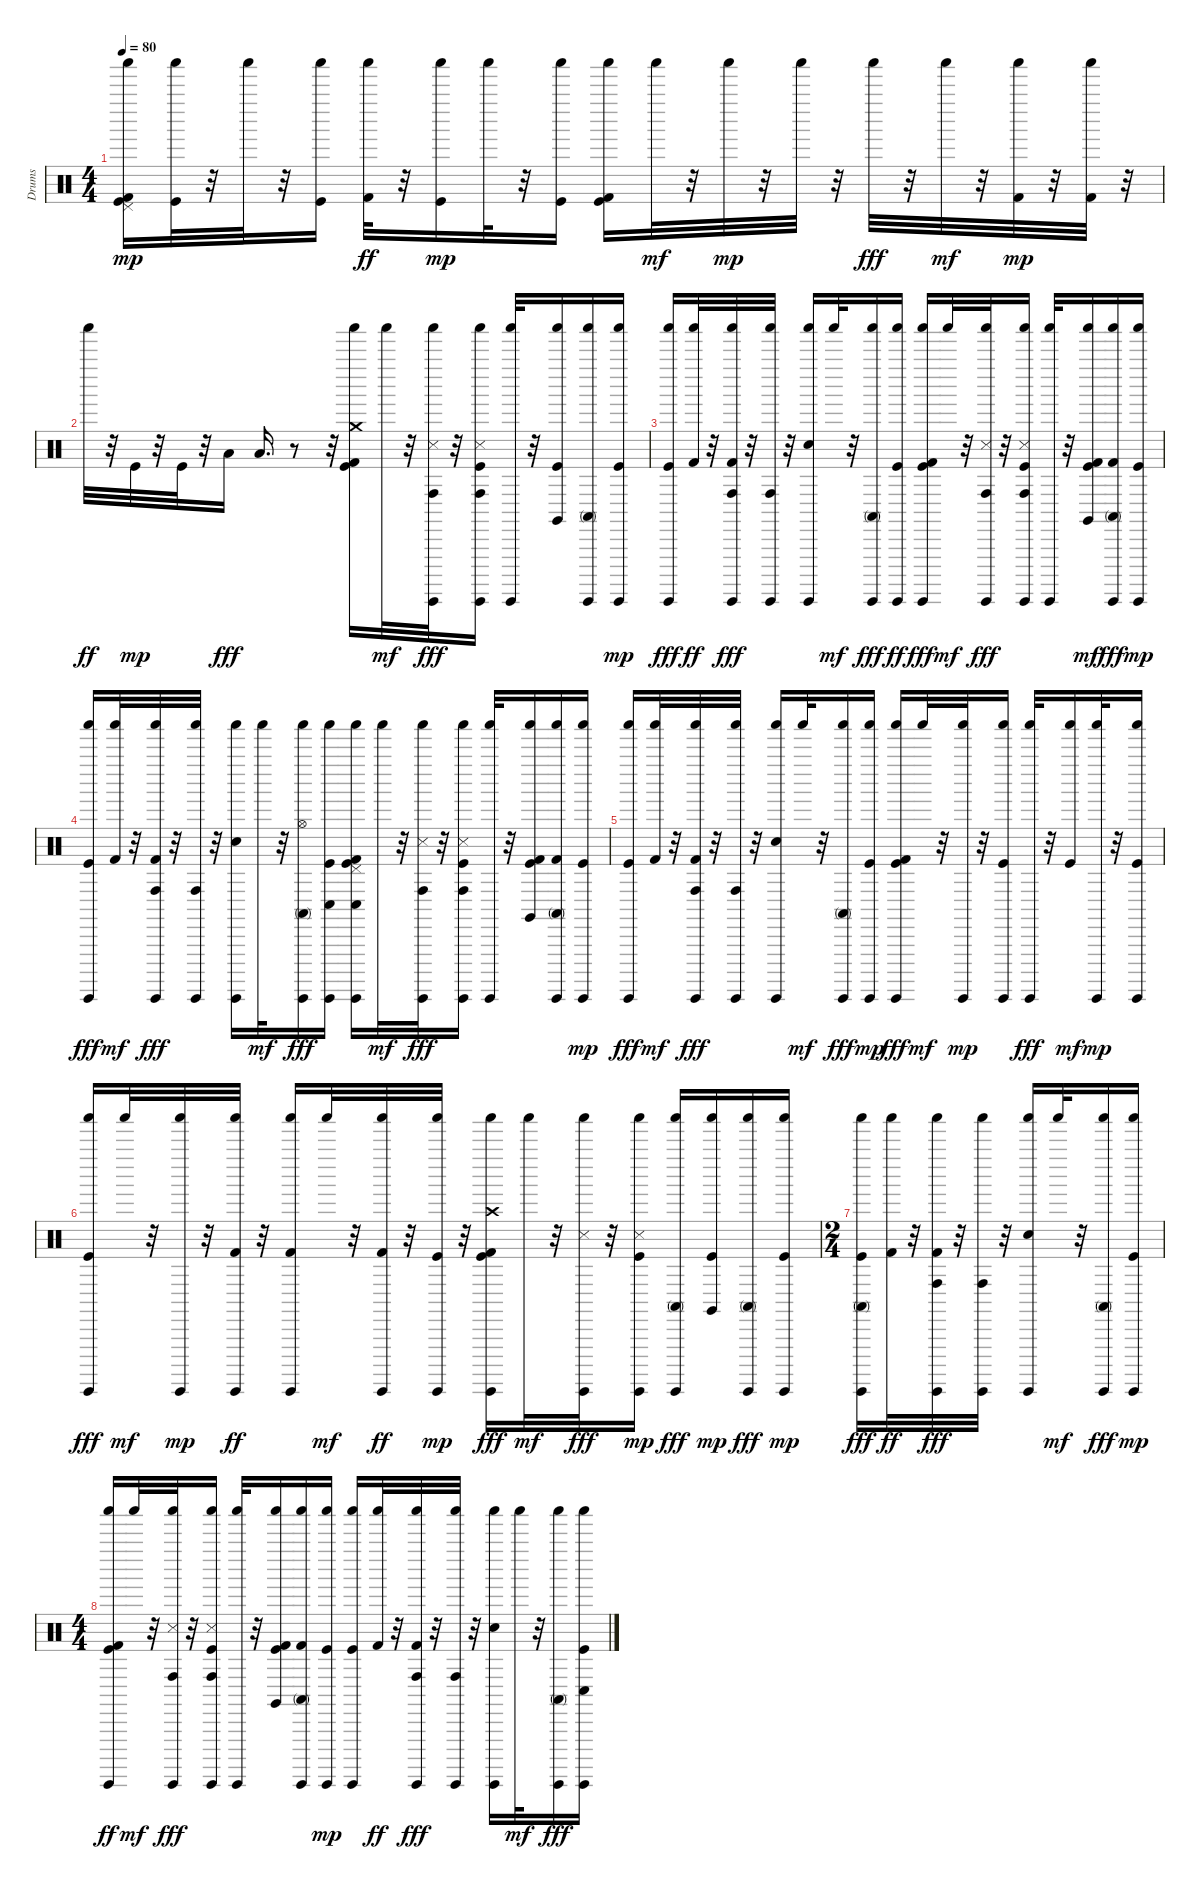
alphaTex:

\track ("Drums" "Drums") {instrument percussion}
\staff {score}
\articulation defaults
\ts (4 4)
\tempo 80
\clef neutral
\ks c
("Shaker (hit)" "Kick (hit) 2" "Pedal Hi-Hat (hit)" "Kick (hit)").16{dy mp} ("Shaker (hit)" "Kick (hit)").32 r.32 "Shaker (hit)".32 r.32 ("Shaker (hit)" "Kick (hit)").16 ("Shaker (hit)" "Kick (hit) 2").32{dy ff} r.32 ("Shaker (hit)" "Kick (hit)").16{dy mp} "Shaker (hit)".32 r.32 ("Shaker (hit)" "Kick (hit)").16 ("Shaker (hit)" "Kick (hit) 2" "Kick (hit)").16 "Shaker (hit)".32{dy mf} r.32 "Shaker (hit)".32{dy mp} r.32 "Shaker (hit)".32 r.32 "Shaker (hit)".32{dy fff} r.32 "Shaker (hit)".32{dy mf} r.32 ("Kick (hit) 2" "Shaker (hit)").32{dy mp} r.32 ("Kick (hit) 2" "Shaker (hit)").32 r.32 |
"Shaker (hit)".32{dy ff} r.32 "Kick (hit)".32{dy mp} r.32 "Kick (hit)".32 r.32 "Low Tom (hit)".16{dy fff} "Low Floor Tom (hit)".16{d} r.8 r.32 ("Shaker (hit)" "Kick (hit)" "Kick (hit) 2" "Crash medium (hit)").16 "Shaker (hit)".32{dy mf} r.32 ("Shaker (hit)" "Guiro (hit)" "Snare (side stick) 3" "Conga high (hit)").32{dy fff} r.32 ("Shaker (hit)" "Kick (hit)" "Guiro (hit)" "Snare (side stick) 3" "Conga high (hit)").16 ("Shaker (hit)" "Guiro (hit)").32 r.32 ("Shaker (hit)" "Kick (hit)" "Claves (hit)").16 ("Shaker (hit)" "Guiro (hit)" "Conga high (mute)").16 ("Shaker (hit)" "Kick (hit)" "Guiro (hit)").16{dy mp} |
("Shaker (hit)" "Kick (hit)" "Guiro (hit)").16{dy fff} ("Shaker (hit)" "Kick (hit) 2").32{dy ff} r.32 ("Shaker (hit)" "Kick (hit) 2" "Guiro (hit)" "Conga high (hit)").32{dy fff} r.32 ("Shaker (hit)" "Guiro (hit)" "Conga high (hit)").32 r.32 ("Shaker (hit)" "Guiro (hit)" "Electric Snare (hit)").16 "Shaker (hit)".32{dy mf} r.32 ("Shaker (hit)" "Guiro (hit)" "Conga high (mute)").16{dy fff} ("Shaker (hit)" "Kick (hit)" "Guiro (hit)").16{dy ff} ("Kick (hit)" "Guiro (hit)" "Kick (hit) 2" "Shaker (hit)").16{dy fff} "Shaker (hit)".32{dy mf} r.32 ("Guiro (hit)" "Shaker (hit)" "Snare (side stick) 3" "Conga high (hit)").32{dy fff} r.32 ("Kick (hit)" "Guiro (hit)" "Shaker (hit)" "Snare (side stick) 3" "Conga high (hit)").16 ("Guiro (hit)" "Shaker (hit)").32 r.32 ("Kick (hit)" "Kick (hit) 2" "Claves (hit)" "Shaker (hit)").16{dy mf} ("Guiro (hit)" "Kick (hit) 2" "Shaker (hit)" "Conga high (mute)").16{dy fff} ("Kick (hit)" "Guiro (hit)" "Shaker (hit)").16{dy mp} |
("Kick (hit)" "Guiro (hit)" "Shaker (hit)").16{dy fff} ("Kick (hit) 2" "Shaker (hit)").32{dy mf} r.32 ("Guiro (hit)" "Kick (hit) 2" "Shaker (hit)" "Conga high (hit)").32{dy fff} r.32 ("Guiro (hit)" "Shaker (hit)" "Conga high (hit)").32 r.32 ("Guiro (hit)" "Electric Snare (hit)" "Shaker (hit)").16 "Shaker (hit)".32{dy mf} r.32 ("Guiro (hit)" "Shaker (hit)" "Hi-Hat (open)" "Conga high (mute)").16{dy fff} ("Kick (hit)" "Guiro (hit)" "Shaker (hit)" "Conga low (hit)").16 ("Kick (hit)" "Guiro (hit)" "Kick (hit) 2" "Shaker (hit)" "Pedal Hi-Hat (hit)" "Conga low (hit)").16 "Shaker (hit)".32{dy mf} r.32 ("Guiro (hit)" "Snare (side stick) 3" "Shaker (hit)" "Conga high (hit)").32{dy fff} r.32 ("Kick (hit)" "Guiro (hit)" "Shaker (hit)" "Snare (side stick) 3" "Conga high (hit)").16 ("Guiro (hit)" "Shaker (hit)").32 r.32 ("Kick (hit)" "Kick (hit) 2" "Shaker (hit)" "Claves (hit)").16 ("Guiro (hit)" "Kick (hit) 2" "Shaker (hit)" "Conga high (mute)").16 ("Kick (hit)" "Guiro (hit)" "Shaker (hit)").16{dy mp} |
("Kick (hit)" "Guiro (hit)" "Shaker (hit)").16{dy fff} ("Kick (hit) 2" "Shaker (hit)").32{dy mf} r.32 ("Guiro (hit)" "Kick (hit) 2" "Shaker (hit)" "Conga high (hit)").32{dy fff} r.32 ("Guiro (hit)" "Shaker (hit)" "Conga high (hit)").32 r.32 ("Guiro (hit)" "Electric Snare (hit)" "Shaker (hit)").16 "Shaker (hit)".32{dy mf} r.32 ("Guiro (hit)" "Shaker (hit)" "Conga high (mute)").16{dy fff} ("Kick (hit)" "Guiro (hit)" "Shaker (hit)").16{dy mp} ("Kick (hit)" "Guiro (hit)" "Kick (hit) 2" "Shaker (hit)").16{dy fff} "Shaker (hit)".32{dy mf} r.32 ("Guiro (hit)" "Shaker (hit)").32{dy mp} r.32 ("Kick (hit)" "Guiro (hit)" "Shaker (hit)").16 ("Guiro (hit)" "Shaker (hit)").32{dy fff} r.32 ("Kick (hit)" "Shaker (hit)").16{dy mf} ("Guiro (hit)" "Shaker (hit)").32{dy mp} r.32 ("Kick (hit)" "Guiro (hit)" "Shaker (hit)").16 |
("Kick (hit)" "Guiro (hit)" "Shaker (hit)").16{dy fff} "Shaker (hit)".32{dy mf} r.32 ("Guiro (hit)" "Shaker (hit)").32{dy mp} r.32 ("Guiro (hit)" "Shaker (hit)" "Kick (hit) 2").32{dy ff} r.32 ("Guiro (hit)" "Shaker (hit)" "Kick (hit) 2").16 "Shaker (hit)".32{dy mf} r.32 ("Guiro (hit)" "Shaker (hit)" "Kick (hit) 2").32{dy ff} r.32 ("Guiro (hit)" "Shaker (hit)" "Kick (hit)").32{dy mp} r.32 ("Guiro (hit)" "Shaker (hit)" "Kick (hit) 2" "Kick (hit)" "Crash high (hit)").16{dy fff} "Shaker (hit)".32{dy mf} r.32 ("Guiro (hit)" "Shaker (hit)" "Snare (side stick) 3").32{dy fff} r.32 ("Guiro (hit)" "Shaker (hit)" "Snare (side stick) 3" "Kick (hit)").16{dy mp} ("Guiro (hit)" "Shaker (hit)" "Conga high (mute)").16{dy fff} ("Shaker (hit)" "Claves (hit)" "Kick (hit)").16{dy mp} ("Guiro (hit)" "Shaker (hit)" "Conga high (mute)").16{dy fff} ("Guiro (hit)" "Shaker (hit)" "Kick (hit)").16{dy mp} |
\ts (2 4)
("Guiro (hit)" "Shaker (hit)" "Kick (hit)" "Conga high (mute)").16{dy fff} ("Shaker (hit)" "Kick (hit) 2").32{dy ff} r.32 ("Guiro (hit)" "Shaker (hit)" "Kick (hit) 2" "Conga high (hit)").32{dy fff} r.32 ("Guiro (hit)" "Shaker (hit)" "Conga high (hit)").32 r.32 ("Guiro (hit)" "Electric Snare (hit)" "Shaker (hit)").16 "Shaker (hit)".32{dy mf} r.32 ("Guiro (hit)" "Shaker (hit)" "Conga high (mute)").16{dy fff} ("Guiro (hit)" "Shaker (hit)" "Kick (hit)").16{dy mp} |
\ts (4 4)
("Guiro (hit)" "Shaker (hit)" "Kick (hit)" "Kick (hit) 2").16{dy ff} "Shaker (hit)".32{dy mf} r.32 ("Guiro (hit)" "Shaker (hit)" "Snare (side stick) 3" "Conga high (hit)").32{dy fff} r.32 ("Guiro (hit)" "Shaker (hit)" "Kick (hit)" "Snare (side stick) 3" "Conga high (hit)").16 ("Guiro (hit)" "Shaker (hit)").32 r.32 ("Shaker (hit)" "Kick (hit)" "Kick (hit) 2" "Claves (hit)").16 ("Guiro (hit)" "Shaker (hit)" "Kick (hit) 2" "Conga high (mute)").16 ("Guiro (hit)" "Shaker (hit)" "Kick (hit)").16{dy mp} ("Guiro (hit)" "Shaker (hit)" "Kick (hit)").16 ("Shaker (hit)" "Kick (hit) 2").32{dy ff} r.32 ("Guiro (hit)" "Shaker (hit)" "Kick (hit) 2" "Conga high (hit)").32{dy fff} r.32 ("Guiro (hit)" "Shaker (hit)" "Conga high (hit)").32 r.32 ("Guiro (hit)" "Electric Snare (hit)" "Shaker (hit)").16 "Shaker (hit)".32{dy mf} r.32 ("Guiro (hit)" "Shaker (hit)" "Conga high (mute)").16{dy fff} ("Guiro (hit)" "Shaker (hit)" "Kick (hit)" "Conga low (hit)").16
